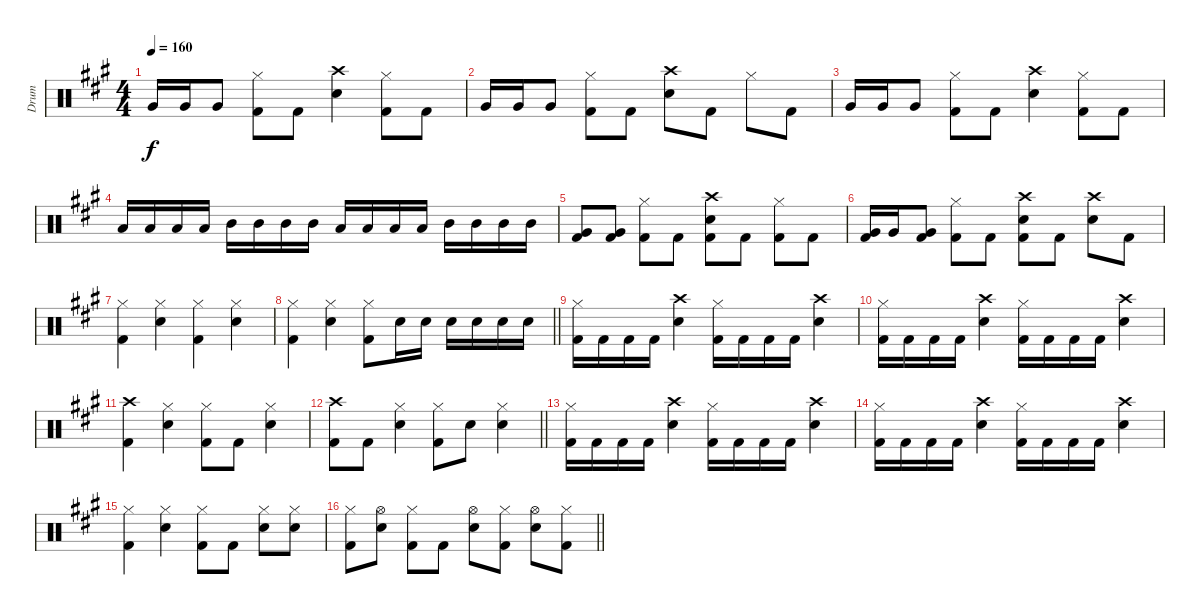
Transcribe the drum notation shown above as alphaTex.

\track ("Drum" "Drum") {instrument percussion}
\staff {score}
\articulation defaults
\ts (4 4)
\tempo 160
\clef neutral
\ks a "Very Low Tom (hit)".16{dy f} "Very Low Tom (hit)".16 "Very Low Tom (hit)".8
("Hi-Hat (closed)" "Kick (hit) 2").8 "Kick (hit) 2".8 ("Snare (hit) 2" "Crash high (hit)").4 ("Hi-Hat (closed)" "Kick (hit) 2").8 "Kick (hit) 2".8 |
"Very Low Tom (hit)".16 "Very Low Tom (hit)".16 "Very Low Tom (hit)".8 ("Hi-Hat (closed)" "Kick (hit) 2").8 "Kick (hit) 2".8 ("Snare (hit) 2" "Crash high (hit)").8 "Kick (hit) 2".8 "Hi-Hat (closed)".8 "Kick (hit) 2".8 |
"Very Low Tom (hit)".16 "Very Low Tom (hit)".16 "Very Low Tom (hit)".8 ("Hi-Hat (closed)" "Kick (hit) 2").8 "Kick (hit) 2".8 ("Snare (hit) 2" "Crash high (hit)").4 ("Hi-Hat (closed)" "Kick (hit) 2").8 "Kick (hit) 2".8 |
"Low Tom (hit)".16 "Low Tom (hit)".16 "Low Tom (hit)".16 "Low Tom (hit)".16 "Mid Tom (hit)".16 "Mid Tom (hit)".16 "Mid Tom (hit)".16 "Mid Tom (hit)".16 "Low Tom (hit)".16 "Low Tom (hit)".16 "Low Tom (hit)".16 "Low Tom (hit)".16 "Mid Tom (hit)".16 "Mid Tom (hit)".16 "Mid Tom (hit)".16 "Mid Tom (hit)".16 |
("Kick (hit) 2" "Very Low Tom (hit)").8 ("Kick (hit) 2" "Very Low Tom (hit)").8 ("Hi-Hat (closed)" "Kick (hit) 2").8 "Kick (hit) 2".8 ("Snare (hit) 2" "Kick (hit) 2" "Crash high (hit)").8 "Kick (hit) 2".8 ("Hi-Hat (closed)" "Kick (hit) 2").8 "Kick (hit) 2".8 |
("Kick (hit) 2" "Very Low Tom (hit)").16 "Very Low Tom (hit)".16 ("Kick (hit) 2" "Very Low Tom (hit)").8 ("Hi-Hat (closed)" "Kick (hit) 2").8 "Kick (hit) 2".8 ("Snare (hit) 2" "Kick (hit) 2" "Crash high (hit)").8 "Kick (hit) 2".8 ("Snare (hit) 2" "Crash high (hit)").8 "Kick (hit) 2".8 |
("Hi-Hat (closed)" "Kick (hit) 2").4 ("Hi-Hat (closed)" "Snare (hit) 2").4 ("Hi-Hat (closed)" "Kick (hit) 2").4 ("Hi-Hat (closed)" "Snare (hit) 2").4 |
\barLineRight lightlight
("Hi-Hat (closed)" "Kick (hit) 2").4 ("Hi-Hat (closed)" "Snare (hit) 2").4 ("Hi-Hat (closed)" "Kick (hit) 2").8 "Snare (hit) 2".16 "Snare (hit) 2".16 "Snare (hit) 2".16 "Snare (hit) 2".16 "Snare (hit) 2".16 "Snare (hit) 2".16 |
("Hi-Hat (closed)" "Kick (hit) 2").16 "Kick (hit) 2".16 "Kick (hit) 2".16 "Kick (hit) 2".16 ("Snare (hit) 2" "Crash high (hit)").4 ("Hi-Hat (closed)" "Kick (hit) 2").16 "Kick (hit) 2".16 "Kick (hit) 2".16 "Kick (hit) 2".16 ("Snare (hit) 2" "Crash high (hit)").4 |
("Hi-Hat (closed)" "Kick (hit) 2").16 "Kick (hit) 2".16 "Kick (hit) 2".16 "Kick (hit) 2".16 ("Snare (hit) 2" "Crash high (hit)").4 ("Hi-Hat (closed)" "Kick (hit) 2").16 "Kick (hit) 2".16 "Kick (hit) 2".16 "Kick (hit) 2".16 ("Snare (hit) 2" "Crash high (hit)").4 |
("Kick (hit) 2" "Crash high (hit)").4 ("Hi-Hat (closed)" "Snare (hit) 2").4 ("Hi-Hat (closed)" "Kick (hit) 2").8 "Kick (hit) 2".8 ("Hi-Hat (closed)" "Snare (hit) 2").4 |
\barLineRight lightlight
("Crash high (hit)" "Kick (hit) 2").8 "Kick (hit) 2".8 ("Hi-Hat (closed)" "Snare (hit) 2").4 ("Hi-Hat (closed)" "Kick (hit) 2").8 "Snare (hit) 2".8 ("Hi-Hat (closed)" "Snare (hit) 2").4 |
("Hi-Hat (closed)" "Kick (hit) 2").16 "Kick (hit) 2".16 "Kick (hit) 2".16 "Kick (hit) 2".16 ("Snare (hit) 2" "Crash high (hit)").4 ("Hi-Hat (closed)" "Kick (hit) 2").16 "Kick (hit) 2".16 "Kick (hit) 2".16 "Kick (hit) 2".16 ("Snare (hit) 2" "Crash high (hit)").4 |
("Hi-Hat (closed)" "Kick (hit) 2").16 "Kick (hit) 2".16 "Kick (hit) 2".16 "Kick (hit) 2".16 ("Snare (hit) 2" "Crash high (hit)").4 ("Hi-Hat (closed)" "Kick (hit) 2").16 "Kick (hit) 2".16 "Kick (hit) 2".16 "Kick (hit) 2".16 ("Snare (hit) 2" "Crash high (hit)").4 |
("Hi-Hat (closed)" "Kick (hit) 2").4 ("Hi-Hat (closed)" "Snare (hit) 2").4 ("Hi-Hat (closed)" "Kick (hit) 2").8 "Kick (hit) 2".8 ("Hi-Hat (closed)" "Snare (hit) 2").8 ("Hi-Hat (closed)" "Snare (hit) 2").8 |
\barLineRight lightlight
("Hi-Hat (closed)" "Kick (hit) 2").8 ("Hi-Hat (open)" "Snare (hit) 2").8 ("Hi-Hat (closed)" "Kick (hit) 2").8 "Kick (hit) 2".8 ("Hi-Hat (open)" "Snare (hit) 2").8 ("Hi-Hat (closed)" "Kick (hit) 2").8 ("Hi-Hat (open)" "Snare (hit) 2").8 ("Hi-Hat (closed)" "Kick (hit) 2").8
